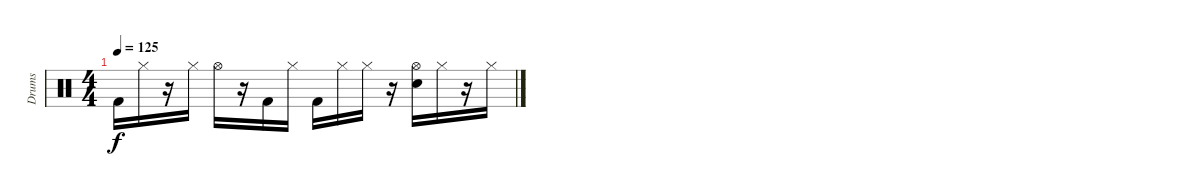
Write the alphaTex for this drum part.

\track ("Drums" "Drums") {instrument percussion}
\staff {score}
\articulation defaults
\ts (4 4)
\tempo 125
\clef neutral
\ks c "Kick (hit) 2".16{dy f} "Hi-Hat (closed)".16
r.16 "Hi-Hat (closed)".16 "Hi-Hat (open)".16 r.16 "Kick (hit) 2".16 "Hi-Hat (closed)".16 "Kick (hit) 2".16 "Hi-Hat (closed)".16 "Hi-Hat (closed)".16 r.16 ("Snare (hit) 2" "Hi-Hat (open)").16 "Hi-Hat (closed)".16 r.16 "Hi-Hat (closed)".16
